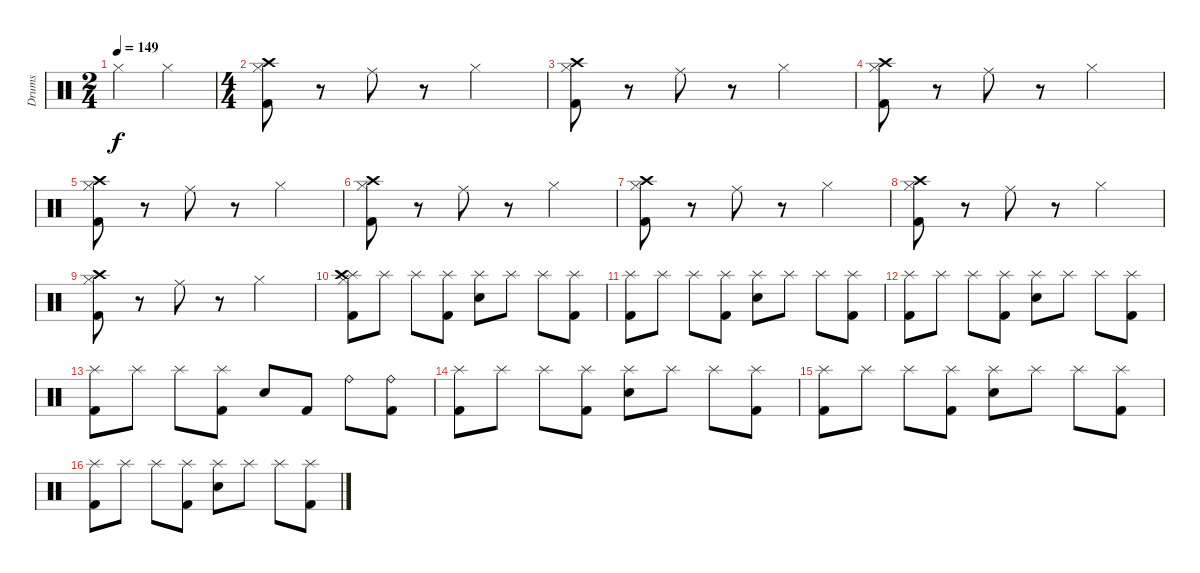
\track ("Drums" "Drums") {instrument percussion}
\staff {score}
\articulation defaults
\ts (2 4)
\tempo 149
\clef neutral
\ks c "Hi-Hat (closed)".4{dy f} "Hi-Hat (closed)".4
|
\ts (4 4)
("Hi-Hat (closed)" "Crash high (hit)" "Kick (hit) 2").8 r.8 "Ride (middle)".8 r.8 "Hi-Hat (closed)".2 |
("Hi-Hat (closed)" "Crash high (hit)" "Kick (hit) 2").8 r.8 "Ride (middle)".8 r.8 "Hi-Hat (closed)".2 |
("Hi-Hat (closed)" "Crash high (hit)" "Kick (hit) 2").8 r.8 "Ride (middle)".8 r.8 "Hi-Hat (closed)".2 |
("Hi-Hat (closed)" "Crash high (hit)" "Kick (hit) 2").8 r.8 "Ride (middle)".8 r.8 "Hi-Hat (closed)".2 |
("Hi-Hat (closed)" "Crash high (hit)" "Kick (hit) 2").8 r.8 "Ride (middle)".8 r.8 "Hi-Hat (closed)".2 |
("Hi-Hat (closed)" "Crash high (hit)" "Kick (hit) 2").8 r.8 "Ride (middle)".8 r.8 "Hi-Hat (closed)".2 |
("Hi-Hat (closed)" "Crash high (hit)" "Kick (hit) 2").8 r.8 "Ride (middle)".8 r.8 "Hi-Hat (closed)".2 |
("Hi-Hat (closed)" "Crash high (hit)" "Kick (hit) 2").8 r.8 "Ride (middle)".8 r.8 "Hi-Hat (closed)".2 |
("Splash (hit)" "Hi-Hat (closed)" "Crash high (hit)" "Kick (hit) 2").8 "Splash (hit)".8 "Splash (hit)".8 ("Splash (hit)" "Kick (hit) 2").8 ("Splash (hit)" "Electric Snare (hit)").8 "Splash (hit)".8 "Splash (hit)".8 ("Splash (hit)" "Kick (hit) 2").8 |
("Splash (hit)" "Kick (hit) 2").8 "Splash (hit)".8 "Splash (hit)".8 ("Splash (hit)" "Kick (hit) 2").8 ("Splash (hit)" "Electric Snare (hit)").8 "Splash (hit)".8 "Splash (hit)".8 ("Splash (hit)" "Kick (hit) 2").8 |
("Splash (hit)" "Kick (hit) 2").8 "Splash (hit)".8 "Splash (hit)".8 ("Splash (hit)" "Kick (hit) 2").8 ("Splash (hit)" "Electric Snare (hit)").8 "Splash (hit)".8 "Splash (hit)".8 ("Splash (hit)" "Kick (hit) 2").8 |
("Splash (hit)" "Kick (hit) 2").8 "Splash (hit)".8 "Splash (hit)".8 ("Splash (hit)" "Kick (hit) 2").8 "Electric Snare (hit)".8 "Kick (hit) 2".8 "Ride (bell)".8 ("Ride (bell)" "Kick (hit) 2").8 |
("Splash (hit)" "Kick (hit) 2").8 "Splash (hit)".8 "Splash (hit)".8 ("Splash (hit)" "Kick (hit) 2").8 ("Splash (hit)" "Electric Snare (hit)").8 "Splash (hit)".8 "Splash (hit)".8 ("Splash (hit)" "Kick (hit) 2").8 |
("Splash (hit)" "Kick (hit) 2").8 "Splash (hit)".8 "Splash (hit)".8 ("Splash (hit)" "Kick (hit) 2").8 ("Splash (hit)" "Electric Snare (hit)").8 "Splash (hit)".8 "Splash (hit)".8 ("Splash (hit)" "Kick (hit) 2").8 |
("Splash (hit)" "Kick (hit) 2").8 "Splash (hit)".8 "Splash (hit)".8 ("Splash (hit)" "Kick (hit) 2").8 ("Splash (hit)" "Electric Snare (hit)").8 "Splash (hit)".8 "Splash (hit)".8 ("Splash (hit)" "Kick (hit) 2").8
